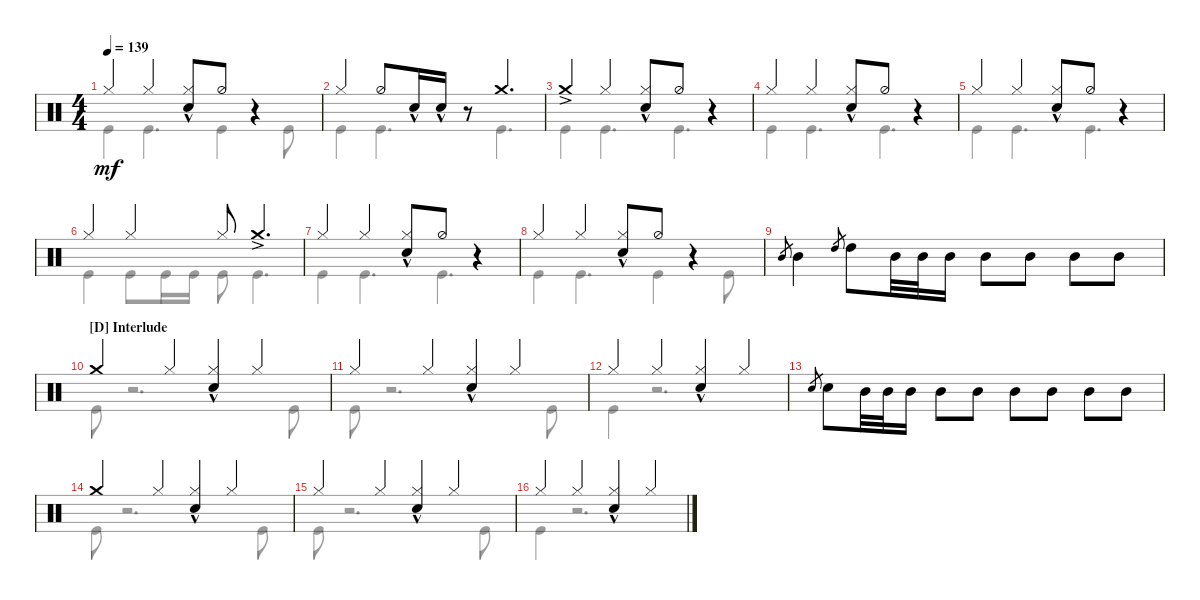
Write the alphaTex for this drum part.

\defaultSystemsLayout 4
\bracketExtendMode groupsimilarinstruments
\singleTrackTrackNamePolicy hidden
\multiTrackTrackNamePolicy hidden
\firstSystemTrackNameOrientation horizontal
\otherSystemsTrackNameOrientation horizontal
\track ("Nicko McBrain" "Drums") {instrument percussion}
\staff {score}
\articulation defaults
\voice
\ts (4 4)
\tempo 139
\clef neutral
\scale
1.02648
\ks c "Hi-Hat (closed)".4{dy mf} "Hi-Hat (closed)".4
("Hi-Hat (closed)" "Snare (hit) 2"{hac}).8 "Hi-Hat (half)".8 r.4 |
\scale
0.973518 "Hi-Hat (closed)".4 "Hi-Hat (half)".8 "Snare (hit) 2"{hac}.16 "Snare (hit) 2"{hac}.16 r.8 "Crash medium (hit)".4{d} |
\scale
1.02648 "Crash medium (hit)"{ac}.4 "Hi-Hat (closed)".4 ("Hi-Hat (closed)" "Snare (hit) 2"{hac}).8 "Hi-Hat (half)".8 r.4 |
\scale
0.973518 "Hi-Hat (closed)".4 "Hi-Hat (closed)".4 ("Hi-Hat (closed)" "Snare (hit) 2"{hac}).8 "Hi-Hat (half)".8 r.4 |
\scale
1.02648 "Hi-Hat (closed)".4 "Hi-Hat (closed)".4 ("Hi-Hat (closed)" "Snare (hit) 2"{hac}).8 "Hi-Hat (half)".8 r.4 |
\scale
0.973518 "Hi-Hat (closed)".4 "Hi-Hat (closed)".4 "Hi-Hat (closed)".8 "Crash medium (hit)"{ac}.4{d} |
\scale
1.02648 "Hi-Hat (closed)".4 "Hi-Hat (closed)".4 ("Hi-Hat (closed)" "Snare (hit) 2"{hac}).8 "Hi-Hat (half)".8 r.4 |
\scale
0.973518 "Hi-Hat (closed)".4 "Hi-Hat (closed)".4 ("Hi-Hat (closed)" "Snare (hit) 2"{hac}).8 "Hi-Hat (half)".8 r.4 |
\scale
1.02648 "Mid Tom (hit)".8{gr} "Mid Tom (hit)".4 "High Tom (hit)".8{gr} "High Tom (hit)".8 "Mid Tom (hit)".32 "Mid Tom (hit)".32 "Mid Tom (hit)".16 "Mid Tom (hit)".8 "Mid Tom (hit)".8 "Mid Tom (hit)".8 "Mid Tom (hit)".8 |
\section ("D" "Interlude")
\scale
0.973518 "Crash medium (hit)".4 "Hi-Hat (closed)".4 ("Hi-Hat (closed)" "Snare (hit) 2"{hac}).4 "Hi-Hat (closed)".4 |
\scale
1.02648 "Hi-Hat (closed)".4 "Hi-Hat (closed)".4 ("Hi-Hat (closed)" "Snare (hit) 2"{hac}).4 "Hi-Hat (closed)".4 |
\scale
0.973518 "Hi-Hat (closed)".4 "Hi-Hat (closed)".4 ("Snare (hit) 2"{hac} "Hi-Hat (closed)").4 "Hi-Hat (closed)".4 |
\scale
1.02648 "Snare (hit) 2".8{gr} "Snare (hit) 2".8 "Mid Tom (hit)".32 "Mid Tom (hit)".32 "Mid Tom (hit)".16 "Mid Tom (hit)".8 "Mid Tom (hit)".8 "Mid Tom (hit)".8 "Mid Tom (hit)".8 "Mid Tom (hit)".8 "Mid Tom (hit)".8 |
\scale
0.973518 "Crash medium (hit)".4 "Hi-Hat (closed)".4 ("Hi-Hat (closed)" "Snare (hit) 2"{hac}).4 "Hi-Hat (closed)".4 |
\scale
1.02648 "Hi-Hat (closed)".4 "Hi-Hat (closed)".4 ("Hi-Hat (closed)" "Snare (hit) 2"{hac}).4 "Hi-Hat (closed)".4 |
\scale
0.973518 "Hi-Hat (closed)".4 "Hi-Hat (closed)".4 ("Hi-Hat (closed)" "Snare (hit) 2"{hac}).4 "Hi-Hat (closed)".4
\voice
\clef neutral
\ottava regular
\simile none
\scale
1.02648
\ks c "Kick (hit)".4{dy mf} "Kick (hit)".4{d} "Kick (hit)".4 "Kick (hit)".8
|
\scale
0.973518 "Kick (hit)".4 "Kick (hit)".4{d} "Kick (hit)".4{d} |
\scale
1.02648 "Kick (hit)".4 "Kick (hit)".4{d} "Kick (hit)".4{d} |
\scale
0.973518 "Kick (hit)".4 "Kick (hit)".4{d} "Kick (hit)".4{d} |
\scale
1.02648 "Kick (hit)".4 "Kick (hit)".4{d} "Kick (hit)".4{d} |
\scale
0.973518 "Kick (hit)".4 "Kick (hit)".8 "Kick (hit)".16 "Kick (hit)".16 "Kick (hit)".8 "Kick (hit)".4{d} |
\scale
1.02648 "Kick (hit)".4 "Kick (hit)".4{d} "Kick (hit)".4{d} |
\scale
0.973518 "Kick (hit)".4 "Kick (hit)".4{d} "Kick (hit)".4 "Kick (hit)".8 |
\scale
1.02648 |
\scale
0.973518 "Kick (hit)".8 r.2{d} "Kick (hit)".8 |
\scale
1.02648 "Kick (hit)".8 r.2{d} "Kick (hit)".8 |
\scale
0.973518 "Kick (hit)".4 r.2{d} |
\scale
1.02648 |
\scale
0.973518 "Kick (hit)".8 r.2{d} "Kick (hit)".8 |
\scale
1.02648 "Kick (hit)".8 r.2{d} "Kick (hit)".8 |
\scale
0.973518 "Kick (hit)".4 r.2{d}
